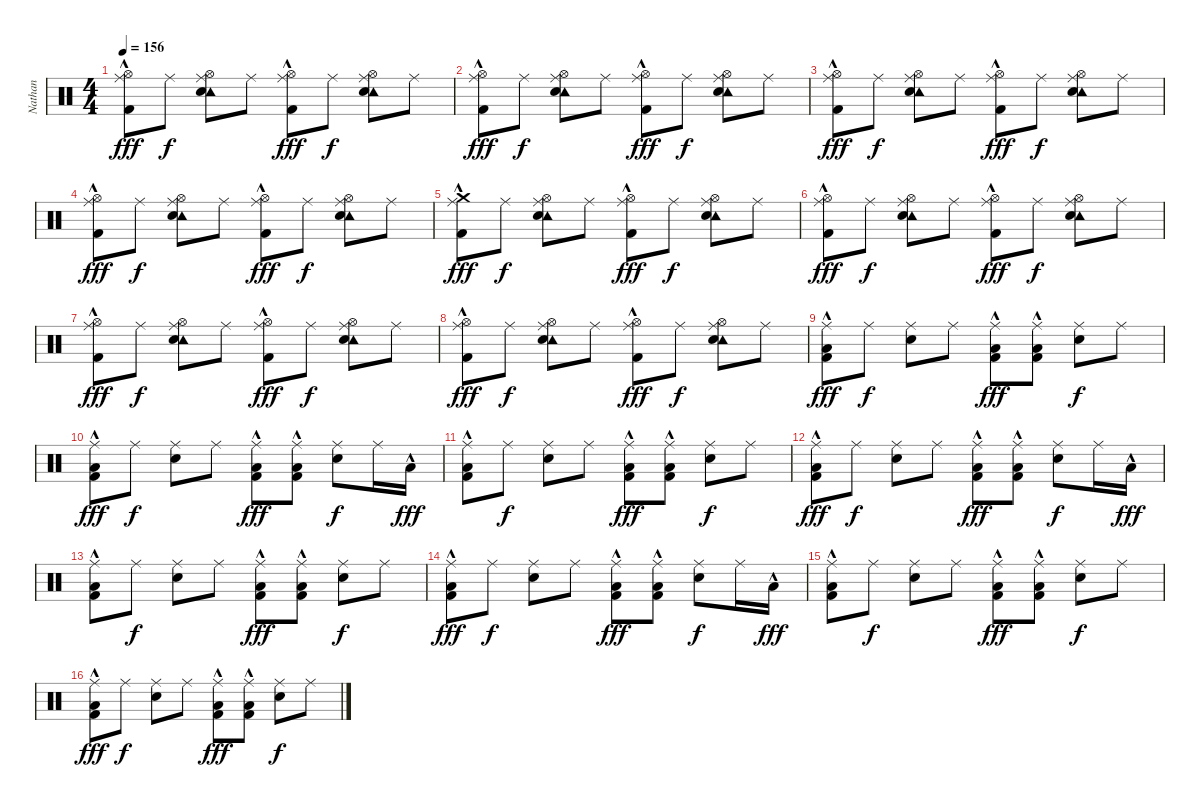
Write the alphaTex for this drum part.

\track ("Nathan" "Nathan") {instrument percussion}
\staff {score}
\articulation defaults
\ts (4 4)
\tempo 156
\clef neutral
\ks c
("Hi-Hat (open)" "Ride (middle)" "Kick (hit) 2"{hac}).8{dy fff} "Ride (middle)".8{dy f} ("Hi-Hat (open)" "Ride (middle)" "Tambourine (hit)" "Snare (hit) 2").8 "Ride (middle)".8 ("Hi-Hat (open)" "Ride (middle)" "Kick (hit) 2"{hac}).8{dy fff} "Ride (middle)".8{dy f} ("Hi-Hat (open)" "Ride (middle)" "Tambourine (hit)" "Snare (hit) 2").8 "Ride (middle)".8 |
("Hi-Hat (open)" "Ride (middle)" "Kick (hit) 2"{hac}).8{dy fff} "Ride (middle)".8{dy f} ("Hi-Hat (open)" "Ride (middle)" "Tambourine (hit)" "Snare (hit) 2").8 "Ride (middle)".8 ("Hi-Hat (open)" "Ride (middle)" "Kick (hit) 2"{hac}).8{dy fff} "Ride (middle)".8{dy f} ("Hi-Hat (open)" "Ride (middle)" "Tambourine (hit)" "Snare (hit) 2").8 "Ride (middle)".8 |
("Hi-Hat (open)" "Ride (middle)" "Kick (hit) 2"{hac}).8{dy fff} "Ride (middle)".8{dy f} ("Hi-Hat (open)" "Ride (middle)" "Tambourine (hit)" "Snare (hit) 2").8 "Ride (middle)".8 ("Hi-Hat (open)" "Ride (middle)" "Kick (hit) 2"{hac}).8{dy fff} "Ride (middle)".8{dy f} ("Hi-Hat (open)" "Ride (middle)" "Tambourine (hit)" "Snare (hit) 2").8 "Ride (middle)".8 |
("Hi-Hat (open)" "Ride (middle)" "Kick (hit) 2"{hac}).8{dy fff} "Ride (middle)".8{dy f} ("Hi-Hat (open)" "Ride (middle)" "Tambourine (hit)" "Snare (hit) 2").8 "Ride (middle)".8 ("Hi-Hat (open)" "Ride (middle)" "Kick (hit) 2"{hac}).8{dy fff} "Ride (middle)".8{dy f} ("Hi-Hat (open)" "Ride (middle)" "Tambourine (hit)" "Snare (hit) 2").8 "Ride (middle)".8 |
("Crash medium (hit)" "Ride (middle)" "Kick (hit) 2"{hac}).8{dy fff} "Ride (middle)".8{dy f} ("Hi-Hat (open)" "Ride (middle)" "Tambourine (hit)" "Snare (hit) 2").8 "Ride (middle)".8 ("Hi-Hat (open)" "Ride (middle)" "Kick (hit) 2"{hac}).8{dy fff} "Ride (middle)".8{dy f} ("Hi-Hat (open)" "Ride (middle)" "Tambourine (hit)" "Snare (hit) 2").8 "Ride (middle)".8 |
("Hi-Hat (open)" "Ride (middle)" "Kick (hit) 2"{hac}).8{dy fff} "Ride (middle)".8{dy f} ("Hi-Hat (open)" "Ride (middle)" "Tambourine (hit)" "Snare (hit) 2").8 "Ride (middle)".8 ("Hi-Hat (open)" "Ride (middle)" "Kick (hit) 2"{hac}).8{dy fff} "Ride (middle)".8{dy f} ("Hi-Hat (open)" "Ride (middle)" "Tambourine (hit)" "Snare (hit) 2").8 "Ride (middle)".8 |
("Hi-Hat (open)" "Ride (middle)" "Kick (hit) 2"{hac}).8{dy fff} "Ride (middle)".8{dy f} ("Hi-Hat (open)" "Ride (middle)" "Tambourine (hit)" "Snare (hit) 2").8 "Ride (middle)".8 ("Hi-Hat (open)" "Ride (middle)" "Kick (hit) 2"{hac}).8{dy fff} "Ride (middle)".8{dy f} ("Hi-Hat (open)" "Ride (middle)" "Tambourine (hit)" "Snare (hit) 2").8 "Ride (middle)".8 |
("Hi-Hat (open)" "Ride (middle)" "Kick (hit) 2"{hac}).8{dy fff} "Ride (middle)".8{dy f} ("Hi-Hat (open)" "Ride (middle)" "Tambourine (hit)" "Snare (hit) 2").8 "Ride (middle)".8 ("Hi-Hat (open)" "Ride (middle)" "Kick (hit) 2"{hac}).8{dy fff} "Ride (middle)".8{dy f} ("Hi-Hat (open)" "Ride (middle)" "Tambourine (hit)" "Snare (hit) 2").8 "Ride (middle)".8 |
("Ride (middle)" "Low Tom (hit)"{hac} "Kick (hit) 2"{hac}).8{dy fff} "Ride (middle)".8{dy f} ("Ride (middle)" "Snare (hit) 2").8 "Ride (middle)".8 ("Ride (middle)" "Low Tom (hit)"{hac} "Kick (hit) 2"{hac}).8{dy fff} ("Ride (middle)" "Low Tom (hit)"{hac} "Kick (hit) 2"{hac}).8 ("Ride (middle)" "Snare (hit) 2").8{dy f} "Ride (middle)".8 |
("Ride (middle)" "Low Tom (hit)"{hac} "Kick (hit) 2"{hac}).8{dy fff} "Ride (middle)".8{dy f} ("Ride (middle)" "Snare (hit) 2").8 "Ride (middle)".8 ("Ride (middle)" "Low Tom (hit)"{hac} "Kick (hit) 2"{hac}).8{dy fff} ("Ride (middle)" "Low Tom (hit)"{hac} "Kick (hit) 2"{hac}).8 ("Ride (middle)" "Snare (hit) 2").8{dy f} "Ride (middle)".16 "Low Tom (hit)"{hac}.16{dy fff} |
("Ride (middle)" "Low Tom (hit)"{hac} "Kick (hit) 2"{hac}).8 "Ride (middle)".8{dy f} ("Ride (middle)" "Snare (hit) 2").8 "Ride (middle)".8 ("Ride (middle)" "Low Tom (hit)"{hac} "Kick (hit) 2"{hac}).8{dy fff} ("Ride (middle)" "Low Tom (hit)"{hac} "Kick (hit) 2"{hac}).8 ("Ride (middle)" "Snare (hit) 2").8{dy f} "Ride (middle)".8 |
("Ride (middle)" "Low Tom (hit)"{hac} "Kick (hit) 2"{hac}).8{dy fff} "Ride (middle)".8{dy f} ("Ride (middle)" "Snare (hit) 2").8 "Ride (middle)".8 ("Ride (middle)" "Low Tom (hit)"{hac} "Kick (hit) 2"{hac}).8{dy fff} ("Ride (middle)" "Low Tom (hit)"{hac} "Kick (hit) 2"{hac}).8 ("Ride (middle)" "Snare (hit) 2").8{dy f} "Ride (middle)".16 "Low Tom (hit)"{hac}.16{dy fff} |
("Ride (middle)" "Low Tom (hit)"{hac} "Kick (hit) 2"{hac}).8 "Ride (middle)".8{dy f} ("Ride (middle)" "Snare (hit) 2").8 "Ride (middle)".8 ("Ride (middle)" "Low Tom (hit)"{hac} "Kick (hit) 2"{hac}).8{dy fff} ("Ride (middle)" "Low Tom (hit)"{hac} "Kick (hit) 2"{hac}).8 ("Ride (middle)" "Snare (hit) 2").8{dy f} "Ride (middle)".8 |
("Ride (middle)" "Low Tom (hit)"{hac} "Kick (hit) 2"{hac}).8{dy fff} "Ride (middle)".8{dy f} ("Ride (middle)" "Snare (hit) 2").8 "Ride (middle)".8 ("Ride (middle)" "Low Tom (hit)"{hac} "Kick (hit) 2"{hac}).8{dy fff} ("Ride (middle)" "Low Tom (hit)"{hac} "Kick (hit) 2"{hac}).8 ("Ride (middle)" "Snare (hit) 2").8{dy f} "Ride (middle)".16 "Low Tom (hit)"{hac}.16{dy fff} |
("Ride (middle)" "Low Tom (hit)"{hac} "Kick (hit) 2"{hac}).8 "Ride (middle)".8{dy f} ("Ride (middle)" "Snare (hit) 2").8 "Ride (middle)".8 ("Ride (middle)" "Low Tom (hit)"{hac} "Kick (hit) 2"{hac}).8{dy fff} ("Ride (middle)" "Low Tom (hit)"{hac} "Kick (hit) 2"{hac}).8 ("Ride (middle)" "Snare (hit) 2").8{dy f} "Ride (middle)".8 |
("Ride (middle)" "Low Tom (hit)"{hac} "Kick (hit) 2"{hac}).8{dy fff} "Ride (middle)".8{dy f} ("Ride (middle)" "Snare (hit) 2").8 "Ride (middle)".8 ("Ride (middle)" "Low Tom (hit)"{hac} "Kick (hit) 2"{hac}).8{dy fff} ("Ride (middle)" "Low Tom (hit)"{hac} "Kick (hit) 2"{hac}).8 ("Ride (middle)" "Snare (hit) 2").8{dy f} "Ride (middle)".8
